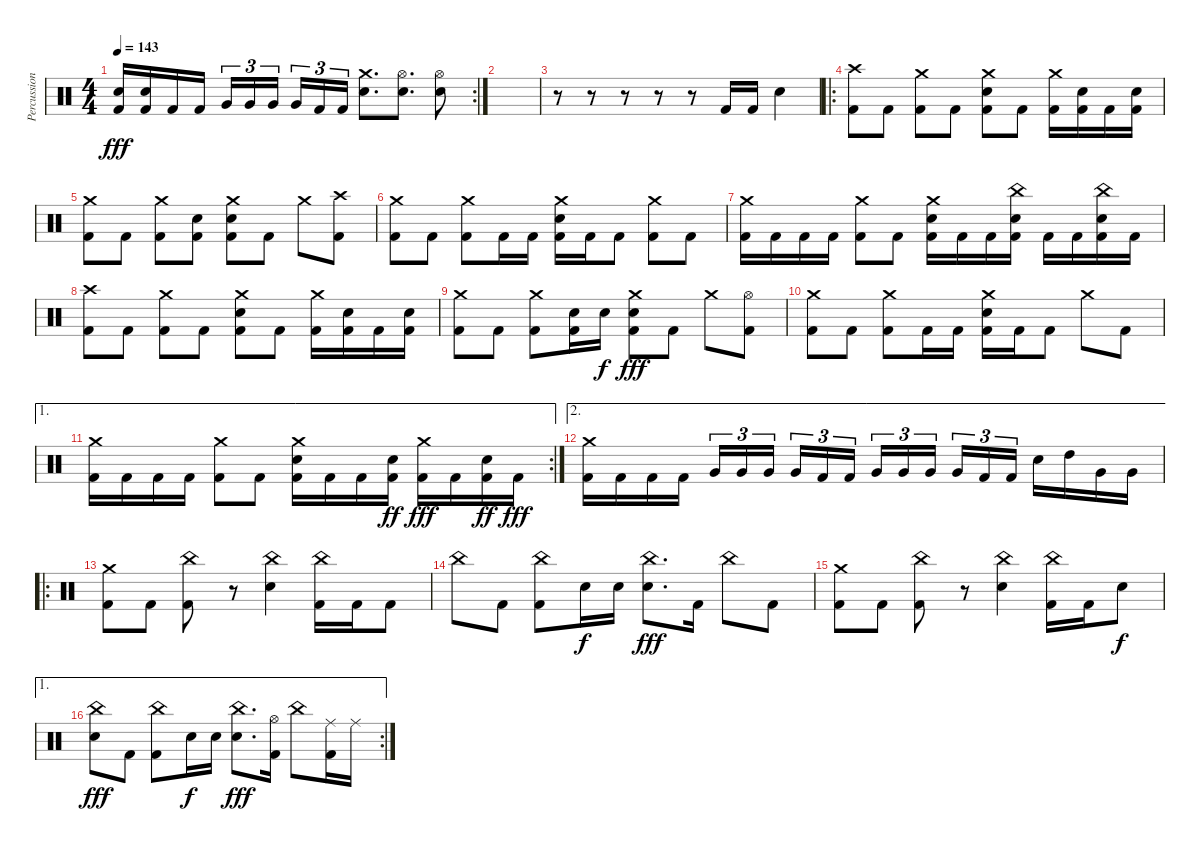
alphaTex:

\track ("Percussion" "Percussion") {instrument percussion}
\staff {score}
\articulation defaults
\rc 2
\ts (4 4)
\tempo 143
\clef neutral
\ks c
("Electric Snare (hit)" "Kick (hit) 2").16{dy fff} ("Electric Snare (hit)" "Kick (hit) 2").16 "Kick (hit) 2".16 "Kick (hit) 2".16 "Very Low Tom (hit)".16{tu (3 2)} "Very Low Tom (hit)".16{tu (3 2)} "Very Low Tom (hit)".16{tu (3 2) beam splitsecondary} "Very Low Tom (hit)".16{tu (3 2)} "Kick (hit) 2".16{tu (3 2)} "Kick (hit) 2".16{tu (3 2)} ("Electric Snare (hit)" "Crash medium (hit)").8{d} ("Electric Snare (hit)" "Hi-Hat (open)").8{d} ("Electric Snare (hit)" "Hi-Hat (open)").8 |
|
r.8 r.8 r.8 r.8 r.8 "Kick (hit) 2".16 "Kick (hit) 2".16 "Electric Snare (hit)".4 |
\ro
("Kick (hit) 2" "Crash high (hit)").8 "Kick (hit) 2".8 ("Kick (hit) 2" "Crash medium (hit)").8 "Kick (hit) 2".8 ("Kick (hit) 2" "Crash medium (hit)" "Electric Snare (hit)").8 "Kick (hit) 2".8 ("Kick (hit) 2" "Crash medium (hit)").16 ("Kick (hit) 2" "Electric Snare (hit)").16 "Kick (hit) 2".16 ("Kick (hit) 2" "Electric Snare (hit)").16 |
("Kick (hit) 2" "Crash medium (hit)").8 "Kick (hit) 2".8 ("Kick (hit) 2" "Crash medium (hit)").8 ("Kick (hit) 2" "Electric Snare (hit)").8 ("Kick (hit) 2" "Crash medium (hit)" "Electric Snare (hit)").8 "Kick (hit) 2".8 "Crash medium (hit)".8 ("Kick (hit) 2" "Crash high (hit)").8 |
("Kick (hit) 2" "Crash medium (hit)").8 "Kick (hit) 2".8 ("Kick (hit) 2" "Crash medium (hit)").8 "Kick (hit) 2".16 "Kick (hit) 2".16 ("Kick (hit) 2" "Crash medium (hit)" "Electric Snare (hit)").16 "Kick (hit) 2".16 "Kick (hit) 2".8 ("Kick (hit) 2" "Crash medium (hit)").8 "Kick (hit) 2".8 |
("Kick (hit) 2" "Crash medium (hit)").16 "Kick (hit) 2".16 "Kick (hit) 2".16 "Kick (hit) 2".16 ("Kick (hit) 2" "Crash medium (hit)").8 "Kick (hit) 2".8 ("Kick (hit) 2" "Crash medium (hit)" "Electric Snare (hit)").16 "Kick (hit) 2".16 "Kick (hit) 2".16 ("Kick (hit) 2" "Electric Snare (hit)" "China (hit)").16 "Kick (hit) 2".16 "Kick (hit) 2".16 ("Kick (hit) 2" "Electric Snare (hit)" "China (hit)").16 "Kick (hit) 2".16 |
("Kick (hit) 2" "Crash high (hit)").8 "Kick (hit) 2".8 ("Kick (hit) 2" "Crash medium (hit)").8 "Kick (hit) 2".8 ("Kick (hit) 2" "Crash medium (hit)" "Electric Snare (hit)").8 "Kick (hit) 2".8 ("Kick (hit) 2" "Crash medium (hit)").16 ("Kick (hit) 2" "Electric Snare (hit)").16 "Kick (hit) 2".16 ("Kick (hit) 2" "Electric Snare (hit)").16 |
("Kick (hit) 2" "Crash medium (hit)").8 "Kick (hit) 2".8 ("Kick (hit) 2" "Crash medium (hit)").8 ("Kick (hit) 2" "Electric Snare (hit)").16 "Electric Snare (hit)".16{dy f} ("Kick (hit) 2" "Crash medium (hit)" "Electric Snare (hit)").8{dy fff} "Kick (hit) 2".8 "Crash medium (hit)".8 ("Kick (hit) 2" "Hi-Hat (open)").8 |
("Kick (hit) 2" "Crash medium (hit)").8 "Kick (hit) 2".8 ("Kick (hit) 2" "Crash medium (hit)").8 "Kick (hit) 2".16 "Kick (hit) 2".16 ("Kick (hit) 2" "Crash medium (hit)" "Electric Snare (hit)").16 "Kick (hit) 2".16 "Kick (hit) 2".8 "Crash medium (hit)".8 "Kick (hit) 2".8 |
\ae 1
\rc 2
("Kick (hit) 2" "Crash medium (hit)").16 "Kick (hit) 2".16 "Kick (hit) 2".16 "Kick (hit) 2".16 ("Kick (hit) 2" "Crash medium (hit)").8 "Kick (hit) 2".8 ("Kick (hit) 2" "Crash medium (hit)" "Electric Snare (hit)").16 "Kick (hit) 2".16 "Kick (hit) 2".16 ("Kick (hit) 2" "Electric Snare (hit)").16{dy ff} ("Kick (hit) 2" "Crash medium (hit)").16{dy fff} "Kick (hit) 2".16 ("Kick (hit) 2" "Electric Snare (hit)").16{dy ff} "Kick (hit) 2".16{dy fff} |
\ae 2
("Kick (hit) 2" "Crash medium (hit)").16 "Kick (hit) 2".16 "Kick (hit) 2".16 "Kick (hit) 2".16 "Very Low Tom (hit)".16{tu (3 2)} "Very Low Tom (hit)".16{tu (3 2)} "Very Low Tom (hit)".16{tu (3 2) beam splitsecondary} "Very Low Tom (hit)".16{tu (3 2)} "Kick (hit) 2".16{tu (3 2)} "Kick (hit) 2".16{tu (3 2)} "Very Low Tom (hit)".16{tu (3 2)} "Very Low Tom (hit)".16{tu (3 2)} "Very Low Tom (hit)".16{tu (3 2) beam splitsecondary} "Very Low Tom (hit)".16{tu (3 2)} "Kick (hit) 2".16{tu (3 2)} "Kick (hit) 2".16{tu (3 2)} "Electric Snare (hit)".16 "High Tom (hit)".16 "Very Low Tom (hit)".16 "Very Low Tom (hit)".16 |
\ro
("Kick (hit) 2" "Crash medium (hit)").8 "Kick (hit) 2".8 ("Kick (hit) 2" "China (hit)").8 r.8 ("Electric Snare (hit)" "China (hit)").4 ("China (hit)" "Kick (hit) 2").16 "Kick (hit) 2".16 "Kick (hit) 2".8 |
"China (hit)".8 "Kick (hit) 2".8 ("China (hit)" "Kick (hit) 2").8 "Electric Snare (hit)".16{dy f} "Electric Snare (hit)".16 ("Electric Snare (hit)" "China (hit)").8{d dy fff} "Kick (hit) 2".16 "China (hit)".8 "Kick (hit) 2".8 |
("Kick (hit) 2" "Crash medium (hit)").8 "Kick (hit) 2".8 ("Kick (hit) 2" "China (hit)").8 r.8 ("Electric Snare (hit)" "China (hit)").4 ("China (hit)" "Kick (hit) 2").16 "Kick (hit) 2".16 "Electric Snare (hit)".8{dy f} |
\ae 1
\rc 2
("Electric Snare (hit)" "China (hit)").8{dy fff} "Kick (hit) 2".8 ("China (hit)" "Kick (hit) 2").8 "Electric Snare (hit)".16{dy f} "Electric Snare (hit)".16 ("Electric Snare (hit)" "China (hit)").8{d dy fff} ("Hi-Hat (open)" "Kick (hit) 2").16 "China (hit)".8 ("Ride (middle)" "Kick (hit) 2").16 "Ride (middle)".16
